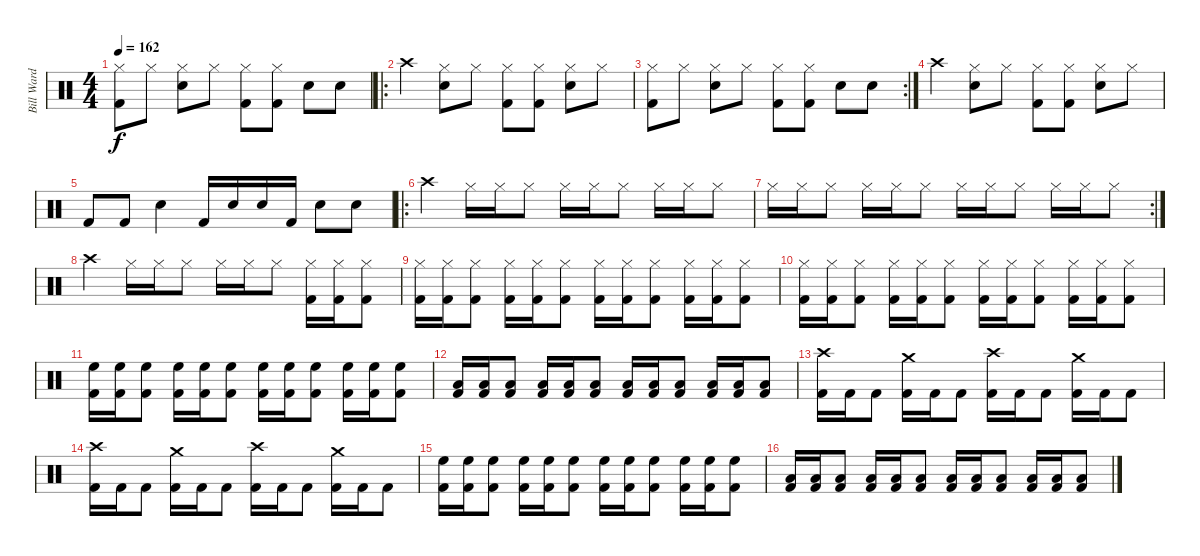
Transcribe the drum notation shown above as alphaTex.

\track ("Bill Ward" "Bill Ward") {instrument percussion}
\staff {score}
\articulation defaults
\ts (4 4)
\tempo 162
\clef neutral
\ks c
("Kick (hit) 2" "Hi-Hat (closed)").8{dy f} "Hi-Hat (closed)".8 ("Snare (hit) 2" "Hi-Hat (closed)").8 "Hi-Hat (closed)".8 ("Kick (hit) 2" "Hi-Hat (closed)").8 ("Kick (hit) 2" "Hi-Hat (closed)").8 "Snare (hit) 2".8 "Snare (hit) 2".8 |
\ro "Crash high (hit)".4
("Snare (hit) 2" "Hi-Hat (closed)").8 "Hi-Hat (closed)".8 ("Kick (hit) 2" "Hi-Hat (closed)").8 ("Kick (hit) 2" "Hi-Hat (closed)").8 ("Snare (hit) 2" "Hi-Hat (closed)").8 "Hi-Hat (closed)".8 |
\rc 2
("Kick (hit) 2" "Hi-Hat (closed)").8 "Hi-Hat (closed)".8 ("Snare (hit) 2" "Hi-Hat (closed)").8 "Hi-Hat (closed)".8 ("Kick (hit) 2" "Hi-Hat (closed)").8 ("Kick (hit) 2" "Hi-Hat (closed)").8 "Snare (hit) 2".8 "Snare (hit) 2".8 |
"Crash high (hit)".4 ("Snare (hit) 2" "Hi-Hat (closed)").8 "Hi-Hat (closed)".8 ("Kick (hit) 2" "Hi-Hat (closed)").8 ("Kick (hit) 2" "Hi-Hat (closed)").8 ("Snare (hit) 2" "Hi-Hat (closed)").8 "Hi-Hat (closed)".8 |
"Kick (hit) 2".8 "Kick (hit) 2".8 "Snare (hit) 2".4 "Kick (hit) 2".16 "Snare (hit) 2".16 "Snare (hit) 2".16 "Kick (hit) 2".16 "Snare (hit) 2".8 "Snare (hit) 2".8 |
\ro "Crash high (hit)".4 "Hi-Hat (closed)".16 "Hi-Hat (closed)".16 "Hi-Hat (closed)".8 "Hi-Hat (closed)".16 "Hi-Hat (closed)".16 "Hi-Hat (closed)".8 "Hi-Hat (closed)".16 "Hi-Hat (closed)".16 "Hi-Hat (closed)".8
|
\rc 2 "Hi-Hat (closed)".16 "Hi-Hat (closed)".16 "Hi-Hat (closed)".8 "Hi-Hat (closed)".16 "Hi-Hat (closed)".16 "Hi-Hat (closed)".8 "Hi-Hat (closed)".16 "Hi-Hat (closed)".16 "Hi-Hat (closed)".8 "Hi-Hat (closed)".16 "Hi-Hat (closed)".16 "Hi-Hat (closed)".8
|
"Crash high (hit)".4 "Hi-Hat (closed)".16 "Hi-Hat (closed)".16 "Hi-Hat (closed)".8 "Hi-Hat (closed)".16 "Hi-Hat (closed)".16 "Hi-Hat (closed)".8 ("Hi-Hat (closed)" "Kick (hit) 2").16 ("Hi-Hat (closed)" "Kick (hit) 2").16 ("Hi-Hat (closed)" "Kick (hit) 2").8 |
("Hi-Hat (closed)" "Kick (hit) 2").16 ("Hi-Hat (closed)" "Kick (hit) 2").16 ("Hi-Hat (closed)" "Kick (hit) 2").8 ("Hi-Hat (closed)" "Kick (hit) 2").16 ("Hi-Hat (closed)" "Kick (hit) 2").16 ("Hi-Hat (closed)" "Kick (hit) 2").8 ("Hi-Hat (closed)" "Kick (hit) 2").16 ("Hi-Hat (closed)" "Kick (hit) 2").16 ("Hi-Hat (closed)" "Kick (hit) 2").8 ("Hi-Hat (closed)" "Kick (hit) 2").16 ("Hi-Hat (closed)" "Kick (hit) 2").16 ("Hi-Hat (closed)" "Kick (hit) 2").8 |
("Hi-Hat (closed)" "Kick (hit) 2").16 ("Hi-Hat (closed)" "Kick (hit) 2").16 ("Hi-Hat (closed)" "Kick (hit) 2").8 ("Hi-Hat (closed)" "Kick (hit) 2").16 ("Hi-Hat (closed)" "Kick (hit) 2").16 ("Hi-Hat (closed)" "Kick (hit) 2").8 ("Hi-Hat (closed)" "Kick (hit) 2").16 ("Hi-Hat (closed)" "Kick (hit) 2").16 ("Hi-Hat (closed)" "Kick (hit) 2").8 ("Hi-Hat (closed)" "Kick (hit) 2").16 ("Hi-Hat (closed)" "Kick (hit) 2").16 ("Hi-Hat (closed)" "Kick (hit) 2").8 |
("High Floor Tom (hit)" "Kick (hit) 2").16 ("High Floor Tom (hit)" "Kick (hit) 2").16 ("High Floor Tom (hit)" "Kick (hit) 2").8 ("High Floor Tom (hit)" "Kick (hit) 2").16 ("High Floor Tom (hit)" "Kick (hit) 2").16 ("High Floor Tom (hit)" "Kick (hit) 2").8 ("High Floor Tom (hit)" "Kick (hit) 2").16 ("High Floor Tom (hit)" "Kick (hit) 2").16 ("High Floor Tom (hit)" "Kick (hit) 2").8 ("High Floor Tom (hit)" "Kick (hit) 2").16 ("High Floor Tom (hit)" "Kick (hit) 2").16 ("High Floor Tom (hit)" "Kick (hit) 2").8 |
("Low Tom (hit)" "Kick (hit) 2").16 ("Low Tom (hit)" "Kick (hit) 2").16 ("Low Tom (hit)" "Kick (hit) 2").8 ("Low Tom (hit)" "Kick (hit) 2").16 ("Low Tom (hit)" "Kick (hit) 2").16 ("Low Tom (hit)" "Kick (hit) 2").8 ("Low Tom (hit)" "Kick (hit) 2").16 ("Low Tom (hit)" "Kick (hit) 2").16 ("Low Tom (hit)" "Kick (hit) 2").8 ("Low Tom (hit)" "Kick (hit) 2").16 ("Low Tom (hit)" "Kick (hit) 2").16 ("Low Tom (hit)" "Kick (hit) 2").8 |
("Crash high (hit)" "Kick (hit) 2").16 "Kick (hit) 2".16 "Kick (hit) 2".8 ("Crash medium (hit)" "Kick (hit) 2").16 "Kick (hit) 2".16 "Kick (hit) 2".8 ("Crash high (hit)" "Kick (hit) 2").16 "Kick (hit) 2".16 "Kick (hit) 2".8 ("Crash medium (hit)" "Kick (hit) 2").16 "Kick (hit) 2".16 "Kick (hit) 2".8 |
("Crash high (hit)" "Kick (hit) 2").16 "Kick (hit) 2".16 "Kick (hit) 2".8 ("Crash medium (hit)" "Kick (hit) 2").16 "Kick (hit) 2".16 "Kick (hit) 2".8 ("Crash high (hit)" "Kick (hit) 2").16 "Kick (hit) 2".16 "Kick (hit) 2".8 ("Crash medium (hit)" "Kick (hit) 2").16 "Kick (hit) 2".16 "Kick (hit) 2".8 |
("High Floor Tom (hit)" "Kick (hit) 2").16 ("High Floor Tom (hit)" "Kick (hit) 2").16 ("High Floor Tom (hit)" "Kick (hit) 2").8 ("High Floor Tom (hit)" "Kick (hit) 2").16 ("High Floor Tom (hit)" "Kick (hit) 2").16 ("High Floor Tom (hit)" "Kick (hit) 2").8 ("High Floor Tom (hit)" "Kick (hit) 2").16 ("High Floor Tom (hit)" "Kick (hit) 2").16 ("High Floor Tom (hit)" "Kick (hit) 2").8 ("High Floor Tom (hit)" "Kick (hit) 2").16 ("High Floor Tom (hit)" "Kick (hit) 2").16 ("High Floor Tom (hit)" "Kick (hit) 2").8 |
("Low Tom (hit)" "Kick (hit) 2").16 ("Low Tom (hit)" "Kick (hit) 2").16 ("Low Tom (hit)" "Kick (hit) 2").8 ("Low Tom (hit)" "Kick (hit) 2").16 ("Low Tom (hit)" "Kick (hit) 2").16 ("Low Tom (hit)" "Kick (hit) 2").8 ("Low Tom (hit)" "Kick (hit) 2").16 ("Low Tom (hit)" "Kick (hit) 2").16 ("Low Tom (hit)" "Kick (hit) 2").8 ("Low Tom (hit)" "Kick (hit) 2").16 ("Low Tom (hit)" "Kick (hit) 2").16 ("Low Tom (hit)" "Kick (hit) 2").8
